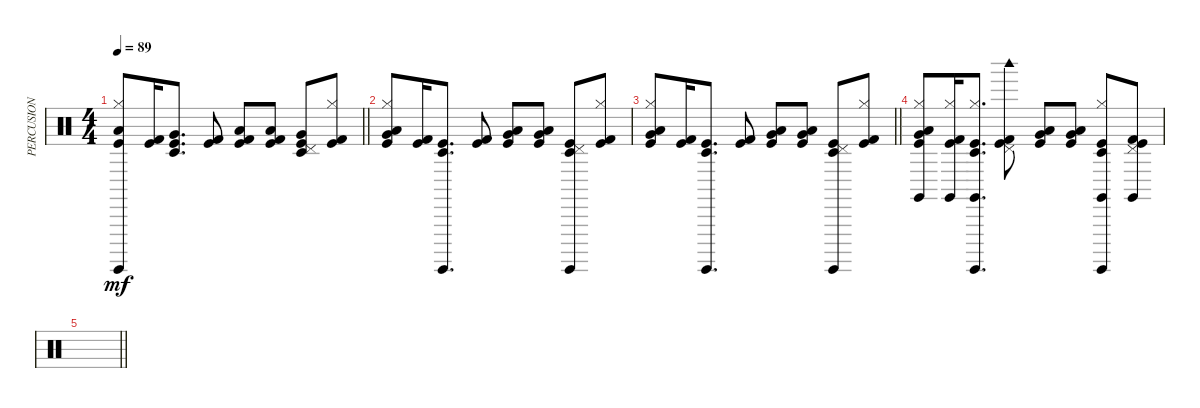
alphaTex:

\track ("PERCUSION" "PERCUSION") {instrument percussion}
\staff {score}
\articulation defaults
\ts (4 4)
\tempo 89
\clef neutral
\barLineRight lightlight
\ks c
("Kick (hit)" "Hi-Hat (closed)" "Surdo (hit)" "Low Floor Tom (hit)").8{dy mf} ("Kick (hit)" "Kick (hit) 2").16 ("Kick (hit)" "Very Low Tom (hit)" "Timbale low (hit)").8{d} ("Kick (hit)" "Kick (hit) 2").8 ("Kick (hit)" "Kick (hit) 2" "Low Floor Tom (hit)").8 ("Kick (hit)" "Kick (hit) 2" "Low Floor Tom (hit)").8 ("Kick (hit)" "Pedal Hi-Hat (hit)" "Very Low Tom (hit)" "Timbale low (hit)").8 ("Kick (hit)" "Hi-Hat (closed)" "Kick (hit) 2").8 |
("Kick (hit)" "Hi-Hat (closed)" "Very Low Tom (hit)" "Low Floor Tom (hit)").8 ("Kick (hit)" "Kick (hit) 2").16 ("Kick (hit)" "Surdo (hit)" "Timbale low (hit)").8{d} ("Kick (hit)" "Kick (hit) 2").8 ("Kick (hit)" "Very Low Tom (hit)" "Low Floor Tom (hit)").8 ("Kick (hit)" "Very Low Tom (hit)" "Low Floor Tom (hit)").8 ("Kick (hit)" "Pedal Hi-Hat (hit)" "Surdo (hit)" "Timbale low (hit)").8 ("Kick (hit)" "Hi-Hat (closed)" "Kick (hit) 2").8 |
\barLineRight lightlight
("Kick (hit)" "Hi-Hat (closed)" "Very Low Tom (hit)" "Low Floor Tom (hit)").8 ("Kick (hit)" "Kick (hit) 2").16 ("Kick (hit)" "Surdo (hit)" "Timbale low (hit)").8{d} ("Kick (hit)" "Kick (hit) 2").8 ("Kick (hit)" "Very Low Tom (hit)" "Low Floor Tom (hit)").8 ("Kick (hit)" "Very Low Tom (hit)" "Low Floor Tom (hit)").8 ("Kick (hit)" "Pedal Hi-Hat (hit)" "Surdo (hit)" "Timbale low (hit)").8 ("Kick (hit)" "Hi-Hat (closed)" "Kick (hit) 2").8 |
("Kick (hit)" "Claves (hit)" "Hi-Hat (closed)" "Very Low Tom (hit)" "Low Floor Tom (hit)").8 ("Kick (hit)" "Claves (hit)" "Hi-Hat (closed)" "Kick (hit) 2").16 ("Kick (hit)" "Claves (hit)" "Hi-Hat (closed)" "Surdo (hit)" "Timbale low (hit)").8{d} ("Kick (hit)" "Woodblock high (hit)" "Pedal Hi-Hat (hit)" "Kick (hit) 2").8 ("Kick (hit)" "Very Low Tom (hit)" "Low Floor Tom (hit)").8 ("Kick (hit)" "Very Low Tom (hit)" "Low Floor Tom (hit)").8 ("Kick (hit)" "Claves (hit)" "Hi-Hat (closed)" "Surdo (hit)" "Timbale low (hit)").8 ("Kick (hit)" "Claves (hit)" "Pedal Hi-Hat (hit)" "Kick (hit) 2").8 |
\barLineRight lightlight
